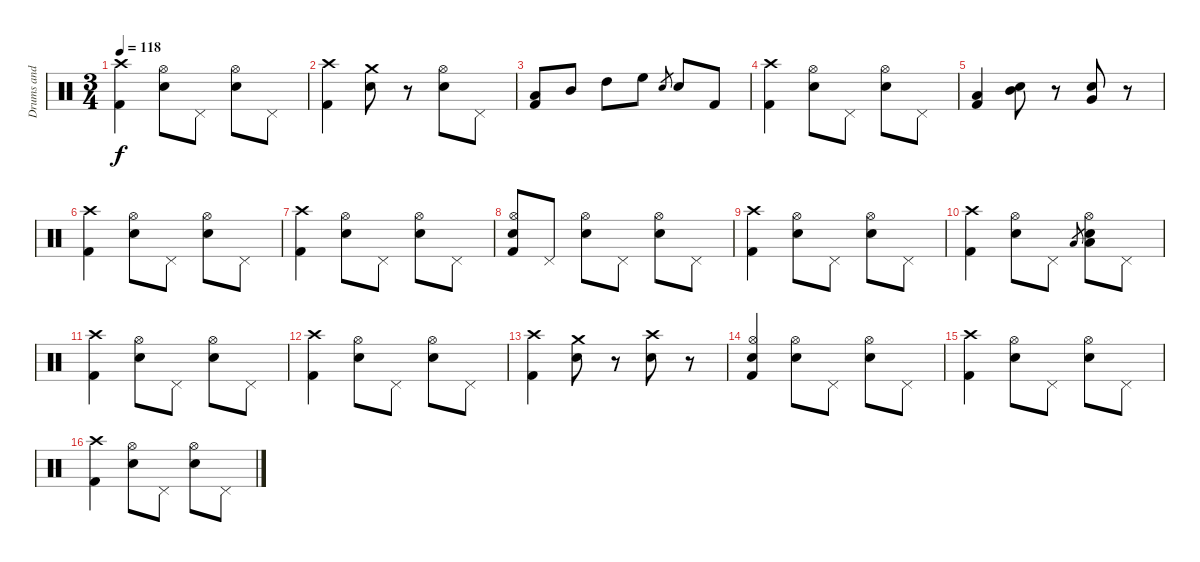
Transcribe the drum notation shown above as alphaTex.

\track ("Drums and percussion" "Drums and ") {instrument percussion}
\staff {score}
\articulation defaults
\ts (3 4)
\tempo 118
\clef neutral
\ks c
("Crash high (hit)" "Kick (hit) 2").4{dy f} ("Hi-Hat (open)" "Snare (hit) 2").8 "Pedal Hi-Hat (hit)".8 ("Hi-Hat (open)" "Snare (hit) 2").8 "Pedal Hi-Hat (hit)".8 |
("Crash high (hit)" "Kick (hit) 2").4 ("Crash medium (hit)" "Snare (hit) 2").8 r.8 ("Hi-Hat (open)" "Snare (hit) 2").8 "Pedal Hi-Hat (hit)".8 |
("Low Tom (hit)" "Kick (hit) 2").8 "Mid Tom (hit)".8 "High Tom (hit)".8 "High Floor Tom (hit)".8 "Snare (hit) 2".8{gr} "Snare (hit) 2".8 "Kick (hit) 2".8 |
("Crash high (hit)" "Kick (hit) 2").4 ("Hi-Hat (open)" "Snare (hit) 2").8 "Pedal Hi-Hat (hit)".8 ("Hi-Hat (open)" "Snare (hit) 2").8 "Pedal Hi-Hat (hit)".8 |
("Low Tom (hit)" "Kick (hit) 2").4 ("Mid Tom (hit)" "Snare (hit) 2").8 r.8 ("Very Low Tom (hit)" "Snare (hit) 2").8 r.8 |
("Crash high (hit)" "Kick (hit) 2").4 ("Hi-Hat (open)" "Snare (hit) 2").8 "Pedal Hi-Hat (hit)".8 ("Hi-Hat (open)" "Snare (hit) 2").8 "Pedal Hi-Hat (hit)".8 |
("Crash high (hit)" "Kick (hit) 2").4 ("Hi-Hat (open)" "Snare (hit) 2").8 "Pedal Hi-Hat (hit)".8 ("Hi-Hat (open)" "Snare (hit) 2").8 "Pedal Hi-Hat (hit)".8 |
("Hi-Hat (open)" "Snare (hit) 2" "Kick (hit) 2").8 "Pedal Hi-Hat (hit)".8 ("Hi-Hat (open)" "Snare (hit) 2").8 "Pedal Hi-Hat (hit)".8 ("Hi-Hat (open)" "Snare (hit) 2").8 "Pedal Hi-Hat (hit)".8 |
("Crash high (hit)" "Kick (hit) 2").4 ("Hi-Hat (open)" "Snare (hit) 2").8 "Pedal Hi-Hat (hit)".8 ("Hi-Hat (open)" "Snare (hit) 2").8 "Pedal Hi-Hat (hit)".8 |
("Crash high (hit)" "Kick (hit) 2").4 ("Hi-Hat (open)" "Snare (hit) 2").8 "Pedal Hi-Hat (hit)".8 "Low Tom (hit)".8{gr} ("Hi-Hat (open)" "Low Tom (hit)" "Snare (hit) 2").8 "Pedal Hi-Hat (hit)".8 |
("Crash high (hit)" "Kick (hit) 2").4 ("Hi-Hat (open)" "Snare (hit) 2").8 "Pedal Hi-Hat (hit)".8 ("Hi-Hat (open)" "Snare (hit) 2").8 "Pedal Hi-Hat (hit)".8 |
("Crash high (hit)" "Kick (hit) 2").4 ("Hi-Hat (open)" "Snare (hit) 2").8 "Pedal Hi-Hat (hit)".8 ("Hi-Hat (open)" "Snare (hit) 2").8 "Pedal Hi-Hat (hit)".8 |
("Crash high (hit)" "Kick (hit) 2").4 ("Crash medium (hit)" "Snare (hit) 2").8 r.8 ("Crash high (hit)" "Snare (hit) 2").8 r.8 |
("Hi-Hat (open)" "Snare (hit) 2" "Kick (hit) 2").4 ("Hi-Hat (open)" "Snare (hit) 2").8 "Pedal Hi-Hat (hit)".8 ("Hi-Hat (open)" "Snare (hit) 2").8 "Pedal Hi-Hat (hit)".8 |
("Crash high (hit)" "Kick (hit) 2").4 ("Hi-Hat (open)" "Snare (hit) 2").8 "Pedal Hi-Hat (hit)".8 ("Hi-Hat (open)" "Snare (hit) 2").8 "Pedal Hi-Hat (hit)".8 |
("Crash high (hit)" "Kick (hit) 2").4 ("Hi-Hat (open)" "Snare (hit) 2").8 "Pedal Hi-Hat (hit)".8 ("Hi-Hat (open)" "Snare (hit) 2").8 "Pedal Hi-Hat (hit)".8
